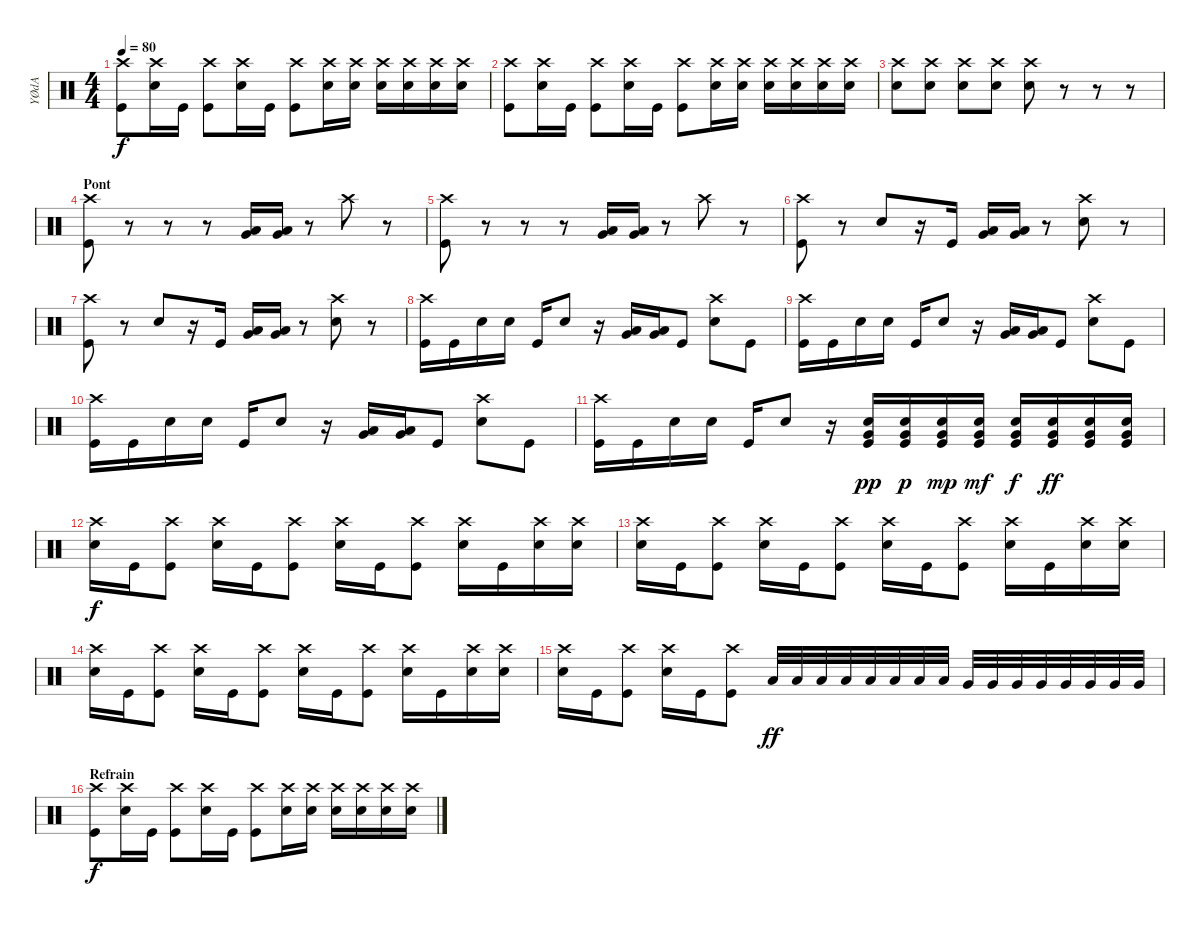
\track ("YØdA" "YØdA") {instrument percussion}
\staff {score}
\articulation defaults
\ts (4 4)
\tempo 80
\clef neutral
\ks c
("Crash high (hit)" "Kick (hit)").8{dy f} ("Crash high (hit)" "Electric Snare (hit)").16 "Kick (hit)".16 ("Crash high (hit)" "Kick (hit)").8 ("Crash high (hit)" "Electric Snare (hit)").16 "Kick (hit)".16 ("Crash high (hit)" "Kick (hit)").8 ("Crash high (hit)" "Electric Snare (hit)").16 ("Crash high (hit)" "Electric Snare (hit)").16 ("Crash high (hit)" "Electric Snare (hit)").16 ("Crash high (hit)" "Electric Snare (hit)").16 ("Crash high (hit)" "Electric Snare (hit)").16 ("Crash high (hit)" "Electric Snare (hit)").16 |
("Crash high (hit)" "Kick (hit)").8 ("Crash high (hit)" "Electric Snare (hit)").16 "Kick (hit)".16 ("Crash high (hit)" "Kick (hit)").8 ("Crash high (hit)" "Electric Snare (hit)").16 "Kick (hit)".16 ("Crash high (hit)" "Kick (hit)").8 ("Crash high (hit)" "Electric Snare (hit)").16 ("Crash high (hit)" "Electric Snare (hit)").16 ("Crash high (hit)" "Electric Snare (hit)").16 ("Crash high (hit)" "Electric Snare (hit)").16 ("Crash high (hit)" "Electric Snare (hit)").16 ("Crash high (hit)" "Electric Snare (hit)").16 |
("Crash high (hit)" "Electric Snare (hit)").8 ("Crash high (hit)" "Electric Snare (hit)").8 ("Crash high (hit)" "Electric Snare (hit)").8 ("Crash high (hit)" "Electric Snare (hit)").8 ("Crash high (hit)" "Electric Snare (hit)").8 r.8 r.8 r.8 |
\section ("" "Pont")
("Crash high (hit)" "Kick (hit)").8 r.8 r.8 r.8 ("Low Tom (hit)" "Very Low Tom (hit)").16 ("Low Tom (hit)" "Very Low Tom (hit)").16 r.8 "Crash high (hit)".8 r.8 |
("Crash high (hit)" "Kick (hit)").8 r.8 r.8 r.8 ("Low Tom (hit)" "Very Low Tom (hit)").16 ("Low Tom (hit)" "Very Low Tom (hit)").16 r.8 "Crash high (hit)".8 r.8 |
("Crash high (hit)" "Kick (hit)").8 r.8 "Electric Snare (hit)".8 r.16 "Kick (hit)".16 ("Low Tom (hit)" "Very Low Tom (hit)").16 ("Low Tom (hit)" "Very Low Tom (hit)").16 r.8 ("Crash high (hit)" "Electric Snare (hit)").8 r.8 |
("Crash high (hit)" "Kick (hit)").8 r.8 "Electric Snare (hit)".8 r.16 "Kick (hit)".16 ("Low Tom (hit)" "Very Low Tom (hit)").16 ("Low Tom (hit)" "Very Low Tom (hit)").16 r.8 ("Crash high (hit)" "Electric Snare (hit)").8 r.8 |
("Crash high (hit)" "Kick (hit)").16 "Kick (hit)".16 "Electric Snare (hit)".16 "Electric Snare (hit)".16 "Kick (hit)".16 "Electric Snare (hit)".8 r.16 ("Low Tom (hit)" "Very Low Tom (hit)").16 ("Low Tom (hit)" "Very Low Tom (hit)").16 "Kick (hit)".8 ("Crash high (hit)" "Electric Snare (hit)").8 "Kick (hit)".8 |
("Crash high (hit)" "Kick (hit)").16 "Kick (hit)".16 "Electric Snare (hit)".16 "Electric Snare (hit)".16 "Kick (hit)".16 "Electric Snare (hit)".8 r.16 ("Low Tom (hit)" "Very Low Tom (hit)").16 ("Low Tom (hit)" "Very Low Tom (hit)").16 "Kick (hit)".8 ("Crash high (hit)" "Electric Snare (hit)").8 "Kick (hit)".8 |
("Crash high (hit)" "Kick (hit)").16 "Kick (hit)".16 "Electric Snare (hit)".16 "Electric Snare (hit)".16 "Kick (hit)".16 "Electric Snare (hit)".8 r.16 ("Low Tom (hit)" "Very Low Tom (hit)").16 ("Low Tom (hit)" "Very Low Tom (hit)").16 "Kick (hit)".8 ("Crash high (hit)" "Electric Snare (hit)").8 "Kick (hit)".8 |
("Crash high (hit)" "Kick (hit)").16 "Kick (hit)".16 "Electric Snare (hit)".16 "Electric Snare (hit)".16 "Kick (hit)".16 "Electric Snare (hit)".8 r.16 ("Very Low Tom (hit)" "Electric Snare (hit)" "Kick (hit)").16{dy pp} ("Very Low Tom (hit)" "Electric Snare (hit)" "Kick (hit)").16{dy p} ("Very Low Tom (hit)" "Electric Snare (hit)" "Kick (hit)").16{dy mp} ("Very Low Tom (hit)" "Electric Snare (hit)" "Kick (hit)").16{dy mf} ("Very Low Tom (hit)" "Electric Snare (hit)" "Kick (hit)").16{dy f} ("Very Low Tom (hit)" "Electric Snare (hit)" "Kick (hit)").16{dy ff} ("Very Low Tom (hit)" "Electric Snare (hit)" "Kick (hit)").16 ("Very Low Tom (hit)" "Electric Snare (hit)" "Kick (hit)").16 |
("Crash high (hit)" "Electric Snare (hit)").16{dy f} "Kick (hit)".16 ("Crash high (hit)" "Kick (hit)").8 ("Crash high (hit)" "Electric Snare (hit)").16 "Kick (hit)".16 ("Crash high (hit)" "Kick (hit)").8 ("Crash high (hit)" "Electric Snare (hit)").16 "Kick (hit)".16 ("Crash high (hit)" "Kick (hit)").8 ("Crash high (hit)" "Electric Snare (hit)").16 "Kick (hit)".16 ("Crash high (hit)" "Electric Snare (hit)").16 ("Crash high (hit)" "Electric Snare (hit)").16 |
("Crash high (hit)" "Electric Snare (hit)").16 "Kick (hit)".16 ("Crash high (hit)" "Kick (hit)").8 ("Crash high (hit)" "Electric Snare (hit)").16 "Kick (hit)".16 ("Crash high (hit)" "Kick (hit)").8 ("Crash high (hit)" "Electric Snare (hit)").16 "Kick (hit)".16 ("Crash high (hit)" "Kick (hit)").8 ("Crash high (hit)" "Electric Snare (hit)").16 "Kick (hit)".16 ("Crash high (hit)" "Electric Snare (hit)").16 ("Crash high (hit)" "Electric Snare (hit)").16 |
("Crash high (hit)" "Electric Snare (hit)").16 "Kick (hit)".16 ("Crash high (hit)" "Kick (hit)").8 ("Crash high (hit)" "Electric Snare (hit)").16 "Kick (hit)".16 ("Crash high (hit)" "Kick (hit)").8 ("Crash high (hit)" "Electric Snare (hit)").16 "Kick (hit)".16 ("Crash high (hit)" "Kick (hit)").8 ("Crash high (hit)" "Electric Snare (hit)").16 "Kick (hit)".16 ("Crash high (hit)" "Electric Snare (hit)").16 ("Crash high (hit)" "Electric Snare (hit)").16 |
("Crash high (hit)" "Electric Snare (hit)").16 "Kick (hit)".16 ("Crash high (hit)" "Kick (hit)").8 ("Crash high (hit)" "Electric Snare (hit)").16 "Kick (hit)".16 ("Crash high (hit)" "Kick (hit)").8 "Low Tom (hit)".32{dy ff} "Low Tom (hit)".32 "Low Tom (hit)".32 "Low Tom (hit)".32 "Low Tom (hit)".32 "Low Tom (hit)".32 "Low Tom (hit)".32 "Low Tom (hit)".32 "Very Low Tom (hit)".32 "Very Low Tom (hit)".32 "Very Low Tom (hit)".32 "Very Low Tom (hit)".32 "Very Low Tom (hit)".32 "Very Low Tom (hit)".32 "Very Low Tom (hit)".32 "Very Low Tom (hit)".32 |
\section ("" "Refrain")
("Crash high (hit)" "Kick (hit)").8{dy f} ("Crash high (hit)" "Electric Snare (hit)").16 "Kick (hit)".16 ("Crash high (hit)" "Kick (hit)").8 ("Crash high (hit)" "Electric Snare (hit)").16 "Kick (hit)".16 ("Crash high (hit)" "Kick (hit)").8 ("Crash high (hit)" "Electric Snare (hit)").16 ("Crash high (hit)" "Electric Snare (hit)").16 ("Crash high (hit)" "Electric Snare (hit)").16 ("Crash high (hit)" "Electric Snare (hit)").16 ("Crash high (hit)" "Electric Snare (hit)").16 ("Crash high (hit)" "Electric Snare (hit)").16
